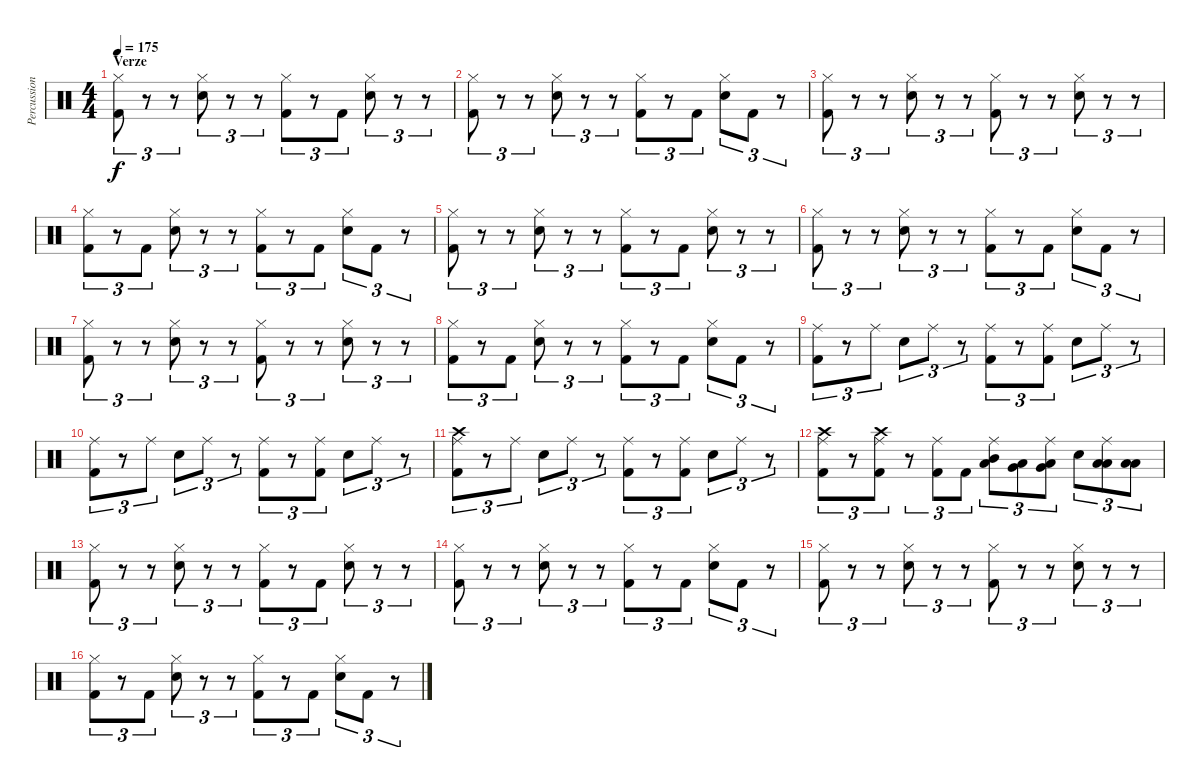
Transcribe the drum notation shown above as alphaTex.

\track ("Percussion" "Percussion") {instrument percussion}
\staff {score}
\articulation defaults
\ts (4 4)
\section ("" "Verze")
\tempo 175
\clef neutral
\ks c
("Hi-Hat (closed)" "Kick (hit) 2").8{tu (3 2) dy f} r.8{tu (3 2)} r.8{tu (3 2)} ("Hi-Hat (closed)" "Electric Snare (hit)").8{tu (3 2)} r.8{tu (3 2)} r.8{tu (3 2)} ("Hi-Hat (closed)" "Kick (hit) 2").8{tu (3 2)} r.8{tu (3 2)} "Kick (hit) 2".8{tu (3 2)} ("Hi-Hat (closed)" "Electric Snare (hit)").8{tu (3 2)} r.8{tu (3 2)} r.8{tu (3 2)} |
("Hi-Hat (closed)" "Kick (hit) 2").8{tu (3 2)} r.8{tu (3 2)} r.8{tu (3 2)} ("Hi-Hat (closed)" "Electric Snare (hit)").8{tu (3 2)} r.8{tu (3 2)} r.8{tu (3 2)} ("Hi-Hat (closed)" "Kick (hit) 2").8{tu (3 2)} r.8{tu (3 2)} "Kick (hit) 2".8{tu (3 2)} ("Hi-Hat (closed)" "Electric Snare (hit)").8{tu (3 2)} "Kick (hit) 2".8{tu (3 2)} r.8{tu (3 2)} |
("Hi-Hat (closed)" "Kick (hit) 2").8{tu (3 2)} r.8{tu (3 2)} r.8{tu (3 2)} ("Hi-Hat (closed)" "Electric Snare (hit)").8{tu (3 2)} r.8{tu (3 2)} r.8{tu (3 2)} ("Hi-Hat (closed)" "Kick (hit) 2").8{tu (3 2)} r.8{tu (3 2)} r.8{tu (3 2)} ("Hi-Hat (closed)" "Electric Snare (hit)").8{tu (3 2)} r.8{tu (3 2)} r.8{tu (3 2)} |
("Hi-Hat (closed)" "Kick (hit) 2").8{tu (3 2)} r.8{tu (3 2)} "Kick (hit) 2".8{tu (3 2)} ("Hi-Hat (closed)" "Electric Snare (hit)").8{tu (3 2)} r.8{tu (3 2)} r.8{tu (3 2)} ("Hi-Hat (closed)" "Kick (hit) 2").8{tu (3 2)} r.8{tu (3 2)} "Kick (hit) 2".8{tu (3 2)} ("Hi-Hat (closed)" "Electric Snare (hit)").8{tu (3 2)} "Kick (hit) 2".8{tu (3 2)} r.8{tu (3 2)} |
("Hi-Hat (closed)" "Kick (hit) 2").8{tu (3 2)} r.8{tu (3 2)} r.8{tu (3 2)} ("Hi-Hat (closed)" "Electric Snare (hit)").8{tu (3 2)} r.8{tu (3 2)} r.8{tu (3 2)} ("Hi-Hat (closed)" "Kick (hit) 2").8{tu (3 2)} r.8{tu (3 2)} "Kick (hit) 2".8{tu (3 2)} ("Hi-Hat (closed)" "Electric Snare (hit)").8{tu (3 2)} r.8{tu (3 2)} r.8{tu (3 2)} |
("Hi-Hat (closed)" "Kick (hit) 2").8{tu (3 2)} r.8{tu (3 2)} r.8{tu (3 2)} ("Hi-Hat (closed)" "Electric Snare (hit)").8{tu (3 2)} r.8{tu (3 2)} r.8{tu (3 2)} ("Hi-Hat (closed)" "Kick (hit) 2").8{tu (3 2)} r.8{tu (3 2)} "Kick (hit) 2".8{tu (3 2)} ("Hi-Hat (closed)" "Electric Snare (hit)").8{tu (3 2)} "Kick (hit) 2".8{tu (3 2)} r.8{tu (3 2)} |
("Hi-Hat (closed)" "Kick (hit) 2").8{tu (3 2)} r.8{tu (3 2)} r.8{tu (3 2)} ("Hi-Hat (closed)" "Electric Snare (hit)").8{tu (3 2)} r.8{tu (3 2)} r.8{tu (3 2)} ("Hi-Hat (closed)" "Kick (hit) 2").8{tu (3 2)} r.8{tu (3 2)} r.8{tu (3 2)} ("Hi-Hat (closed)" "Electric Snare (hit)").8{tu (3 2)} r.8{tu (3 2)} r.8{tu (3 2)} |
("Hi-Hat (closed)" "Kick (hit) 2").8{tu (3 2)} r.8{tu (3 2)} "Kick (hit) 2".8{tu (3 2)} ("Hi-Hat (closed)" "Electric Snare (hit)").8{tu (3 2)} r.8{tu (3 2)} r.8{tu (3 2)} ("Hi-Hat (closed)" "Kick (hit) 2").8{tu (3 2)} r.8{tu (3 2)} "Kick (hit) 2".8{tu (3 2)} ("Hi-Hat (closed)" "Electric Snare (hit)").8{tu (3 2)} "Kick (hit) 2".8{tu (3 2)} r.8{tu (3 2)} |
("Kick (hit) 2" "Ride (middle)").8{tu (3 2)} r.8{tu (3 2)} "Ride (middle)".8{tu (3 2)} "Electric Snare (hit)".8{tu (3 2)} "Ride (middle)".8{tu (3 2)} r.8{tu (3 2)} ("Kick (hit) 2" "Ride (middle)").8{tu (3 2)} r.8{tu (3 2)} ("Kick (hit) 2" "Ride (middle)").8{tu (3 2)} "Electric Snare (hit)".8{tu (3 2)} "Ride (middle)".8{tu (3 2)} r.8{tu (3 2)} |
("Kick (hit) 2" "Ride (middle)").8{tu (3 2)} r.8{tu (3 2)} "Ride (middle)".8{tu (3 2)} "Electric Snare (hit)".8{tu (3 2)} "Ride (middle)".8{tu (3 2)} r.8{tu (3 2)} ("Kick (hit) 2" "Ride (middle)").8{tu (3 2)} r.8{tu (3 2)} ("Kick (hit) 2" "Ride (middle)").8{tu (3 2)} "Electric Snare (hit)".8{tu (3 2)} "Ride (middle)".8{tu (3 2)} r.8{tu (3 2)} |
("Crash high (hit)" "Kick (hit) 2" "Ride (middle)").8{tu (3 2)} r.8{tu (3 2)} "Ride (middle)".8{tu (3 2)} "Electric Snare (hit)".8{tu (3 2)} "Ride (middle)".8{tu (3 2)} r.8{tu (3 2)} ("Kick (hit) 2" "Ride (middle)").8{tu (3 2)} r.8{tu (3 2)} ("Kick (hit) 2" "Ride (middle)").8{tu (3 2)} "Electric Snare (hit)".8{tu (3 2)} "Ride (middle)".8{tu (3 2)} r.8{tu (3 2)} |
("Crash high (hit)" "Kick (hit) 2" "Ride (middle)").8{tu (3 2)} r.8{tu (3 2)} ("Crash high (hit)" "Kick (hit) 2" "Ride (middle)").8{tu (3 2)} r.8{tu (3 2)} ("Kick (hit) 2" "Ride (middle)").8{tu (3 2)} "Kick (hit) 2".8{tu (3 2)} ("Mid Tom (hit)" "Low Tom (hit)" "Ride (middle)").8{tu (3 2)} ("Low Tom (hit)" "Very Low Tom (hit)").8{tu (3 2)} ("Low Tom (hit)" "Very Low Tom (hit)" "Ride (middle)").8{tu (3 2)} "Electric Snare (hit)".8{tu (3 2)} ("Low Tom (hit)" "Low Tom (hit)" "Ride (middle)").8{tu (3 2)} ("Low Tom (hit)" "Low Tom (hit)").8{tu (3 2)} |
("Hi-Hat (closed)" "Kick (hit) 2").8{tu (3 2)} r.8{tu (3 2)} r.8{tu (3 2)} ("Hi-Hat (closed)" "Electric Snare (hit)").8{tu (3 2)} r.8{tu (3 2)} r.8{tu (3 2)} ("Hi-Hat (closed)" "Kick (hit) 2").8{tu (3 2)} r.8{tu (3 2)} "Kick (hit) 2".8{tu (3 2)} ("Hi-Hat (closed)" "Electric Snare (hit)").8{tu (3 2)} r.8{tu (3 2)} r.8{tu (3 2)} |
("Hi-Hat (closed)" "Kick (hit) 2").8{tu (3 2)} r.8{tu (3 2)} r.8{tu (3 2)} ("Hi-Hat (closed)" "Electric Snare (hit)").8{tu (3 2)} r.8{tu (3 2)} r.8{tu (3 2)} ("Hi-Hat (closed)" "Kick (hit) 2").8{tu (3 2)} r.8{tu (3 2)} "Kick (hit) 2".8{tu (3 2)} ("Hi-Hat (closed)" "Electric Snare (hit)").8{tu (3 2)} "Kick (hit) 2".8{tu (3 2)} r.8{tu (3 2)} |
("Hi-Hat (closed)" "Kick (hit) 2").8{tu (3 2)} r.8{tu (3 2)} r.8{tu (3 2)} ("Hi-Hat (closed)" "Electric Snare (hit)").8{tu (3 2)} r.8{tu (3 2)} r.8{tu (3 2)} ("Hi-Hat (closed)" "Kick (hit) 2").8{tu (3 2)} r.8{tu (3 2)} r.8{tu (3 2)} ("Hi-Hat (closed)" "Electric Snare (hit)").8{tu (3 2)} r.8{tu (3 2)} r.8{tu (3 2)} |
("Hi-Hat (closed)" "Kick (hit) 2").8{tu (3 2)} r.8{tu (3 2)} "Kick (hit) 2".8{tu (3 2)} ("Hi-Hat (closed)" "Electric Snare (hit)").8{tu (3 2)} r.8{tu (3 2)} r.8{tu (3 2)} ("Hi-Hat (closed)" "Kick (hit) 2").8{tu (3 2)} r.8{tu (3 2)} "Kick (hit) 2".8{tu (3 2)} ("Hi-Hat (closed)" "Electric Snare (hit)").8{tu (3 2)} "Kick (hit) 2".8{tu (3 2)} r.8{tu (3 2)}
